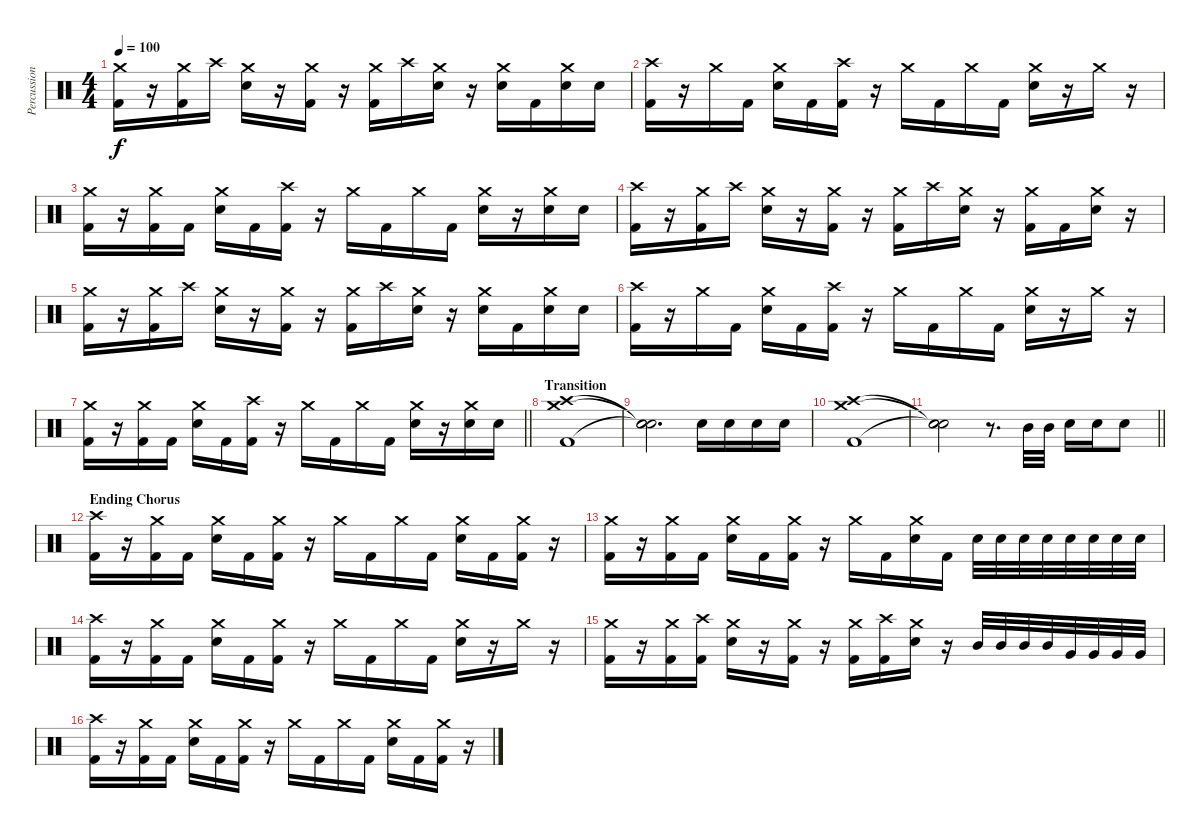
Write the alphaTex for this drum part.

\track ("Percussion" "Percussion") {instrument percussion}
\staff {score}
\articulation defaults
\ts (4 4)
\tempo 100
\clef neutral
\ks c
("Crash medium (hit)" "Kick (hit) 2").16{dy f} r.16 ("Crash medium (hit)" "Kick (hit) 2").16 "Crash high (hit)".16 ("Crash medium (hit)" "Electric Snare (hit)").16 r.16 ("Crash medium (hit)" "Kick (hit) 2").16 r.16 ("Crash medium (hit)" "Kick (hit) 2").16 "Crash high (hit)".16 ("Crash medium (hit)" "Electric Snare (hit)").16 r.16 ("Crash medium (hit)" "Electric Snare (hit)").16 "Kick (hit) 2".16 ("Crash medium (hit)" "Electric Snare (hit)").16 "Electric Snare (hit)".16 |
("Crash high (hit)" "Kick (hit) 2").16 r.16 "Crash medium (hit)".16 "Kick (hit) 2".16 ("Crash medium (hit)" "Electric Snare (hit)").16 "Kick (hit) 2".16 ("Crash high (hit)" "Kick (hit) 2").16 r.16 "Crash medium (hit)".16 "Kick (hit) 2".16 "Crash medium (hit)".16 "Kick (hit) 2".16 ("Crash medium (hit)" "Electric Snare (hit)").16 r.16 "Crash medium (hit)".16 r.16 |
("Crash medium (hit)" "Kick (hit) 2").16 r.16 ("Crash medium (hit)" "Kick (hit) 2").16 "Kick (hit) 2".16 ("Crash medium (hit)" "Electric Snare (hit)").16 "Kick (hit) 2".16 ("Crash high (hit)" "Kick (hit) 2").16 r.16 "Crash medium (hit)".16 "Kick (hit) 2".16 "Crash medium (hit)".16 "Kick (hit) 2".16 ("Crash medium (hit)" "Electric Snare (hit)").16 r.16 ("Crash medium (hit)" "Electric Snare (hit)").16 "Electric Snare (hit)".16 |
("Crash high (hit)" "Kick (hit) 2").16 r.16 ("Crash medium (hit)" "Kick (hit) 2").16 "Crash high (hit)".16 ("Crash medium (hit)" "Electric Snare (hit)").16 r.16 ("Crash medium (hit)" "Kick (hit) 2").16 r.16 ("Crash medium (hit)" "Kick (hit) 2").16 "Crash high (hit)".16 ("Crash medium (hit)" "Electric Snare (hit)").16 r.16 ("Crash medium (hit)" "Kick (hit) 2").16 "Kick (hit) 2".16 ("Crash medium (hit)" "Electric Snare (hit)").16 r.16 |
("Crash medium (hit)" "Kick (hit) 2").16 r.16 ("Crash medium (hit)" "Kick (hit) 2").16 "Crash high (hit)".16 ("Crash medium (hit)" "Electric Snare (hit)").16 r.16 ("Crash medium (hit)" "Kick (hit) 2").16 r.16 ("Crash medium (hit)" "Kick (hit) 2").16 "Crash high (hit)".16 ("Crash medium (hit)" "Electric Snare (hit)").16 r.16 ("Crash medium (hit)" "Electric Snare (hit)").16 "Kick (hit) 2".16 ("Crash medium (hit)" "Electric Snare (hit)").16 "Electric Snare (hit)".16 |
("Crash high (hit)" "Kick (hit) 2").16 r.16 "Crash medium (hit)".16 "Kick (hit) 2".16 ("Crash medium (hit)" "Electric Snare (hit)").16 "Kick (hit) 2".16 ("Crash high (hit)" "Kick (hit) 2").16 r.16 "Crash medium (hit)".16 "Kick (hit) 2".16 "Crash medium (hit)".16 "Kick (hit) 2".16 ("Crash medium (hit)" "Electric Snare (hit)").16 r.16 "Crash medium (hit)".16 r.16 |
\barLineRight lightlight
("Crash medium (hit)" "Kick (hit) 2").16 r.16 ("Crash medium (hit)" "Kick (hit) 2").16 "Kick (hit) 2".16 ("Crash medium (hit)" "Electric Snare (hit)").16 "Kick (hit) 2".16 ("Crash high (hit)" "Kick (hit) 2").16 r.16 "Crash medium (hit)".16 "Kick (hit) 2".16 "Crash medium (hit)".16 "Kick (hit) 2".16 ("Crash medium (hit)" "Electric Snare (hit)").16 r.16 ("Crash medium (hit)" "Electric Snare (hit)").16 "Electric Snare (hit)".16 |
\section ("" "Transition")
("Crash high (hit)" "Crash medium (hit)" "Kick (hit) 2").1 |
("Snare (hit)"{t} "Snare (hit)"{t} "Snare (hit)"{t}).2{d} "Electric Snare (hit)".16 "Electric Snare (hit)".16 "Electric Snare (hit)".16 "Electric Snare (hit)".16 |
("Crash high (hit)" "Crash medium (hit)" "Kick (hit) 2").1 |
\barLineRight lightlight
("Snare (hit)"{t} "Snare (hit)"{t} "Snare (hit)"{t}).2 r.8{d} "Mid Tom (hit)".32 "Mid Tom (hit)".32 "Electric Snare (hit)".16 "Electric Snare (hit)".16 "Electric Snare (hit)".8 |
\section ("" "Ending Chorus")
("Crash high (hit)" "Kick (hit) 2").16 r.16 ("Crash medium (hit)" "Kick (hit) 2").16 "Kick (hit) 2".16 ("Crash medium (hit)" "Electric Snare (hit)").16 "Kick (hit) 2".16 ("Crash medium (hit)" "Kick (hit) 2").16 r.16 "Crash medium (hit)".16 "Kick (hit) 2".16 "Crash medium (hit)".16 "Kick (hit) 2".16 ("Crash medium (hit)" "Electric Snare (hit)").16 "Kick (hit) 2".16 ("Crash medium (hit)" "Kick (hit) 2").16 r.16 |
("Crash medium (hit)" "Kick (hit) 2").16 r.16 ("Crash medium (hit)" "Kick (hit) 2").16 "Kick (hit) 2".16 ("Crash medium (hit)" "Electric Snare (hit)").16 "Kick (hit) 2".16 ("Crash medium (hit)" "Kick (hit) 2").16 r.16 "Crash medium (hit)".16 "Kick (hit) 2".16 ("Crash medium (hit)" "Electric Snare (hit)").16 "Kick (hit) 2".16 "Electric Snare (hit)".32 "Electric Snare (hit)".32 "Electric Snare (hit)".32 "Electric Snare (hit)".32 "Electric Snare (hit)".32 "Electric Snare (hit)".32 "Electric Snare (hit)".32 "Electric Snare (hit)".32 |
("Crash high (hit)" "Kick (hit) 2").16 r.16 ("Crash medium (hit)" "Kick (hit) 2").16 "Kick (hit) 2".16 ("Crash medium (hit)" "Electric Snare (hit)").16 "Kick (hit) 2".16 ("Crash medium (hit)" "Kick (hit) 2").16 r.16 "Crash medium (hit)".16 "Kick (hit) 2".16 "Crash medium (hit)".16 "Kick (hit) 2".16 ("Crash medium (hit)" "Electric Snare (hit)").16 r.16 "Crash medium (hit)".16 r.16 |
("Crash medium (hit)" "Kick (hit) 2").16 r.16 ("Crash medium (hit)" "Kick (hit) 2").16 ("Crash high (hit)" "Kick (hit) 2").16 ("Crash medium (hit)" "Electric Snare (hit)").16 r.16 ("Crash medium (hit)" "Kick (hit) 2").16 r.16 ("Crash medium (hit)" "Kick (hit) 2").16 ("Crash high (hit)" "Kick (hit) 2").16 ("Crash medium (hit)" "Electric Snare (hit)").16 r.16 "Mid Tom (hit)".32 "Mid Tom (hit)".32 "Mid Tom (hit)".32 "Mid Tom (hit)".32 "Very Low Tom (hit)".32 "Very Low Tom (hit)".32 "Very Low Tom (hit)".32 "Very Low Tom (hit)".32 |
("Crash high (hit)" "Kick (hit) 2").16 r.16 ("Crash medium (hit)" "Kick (hit) 2").16 "Kick (hit) 2".16 ("Crash medium (hit)" "Electric Snare (hit)").16 "Kick (hit) 2".16 ("Crash medium (hit)" "Kick (hit) 2").16 r.16 "Crash medium (hit)".16 "Kick (hit) 2".16 "Crash medium (hit)".16 "Kick (hit) 2".16 ("Crash medium (hit)" "Electric Snare (hit)").16 "Kick (hit) 2".16 ("Crash medium (hit)" "Kick (hit) 2").16 r.16
